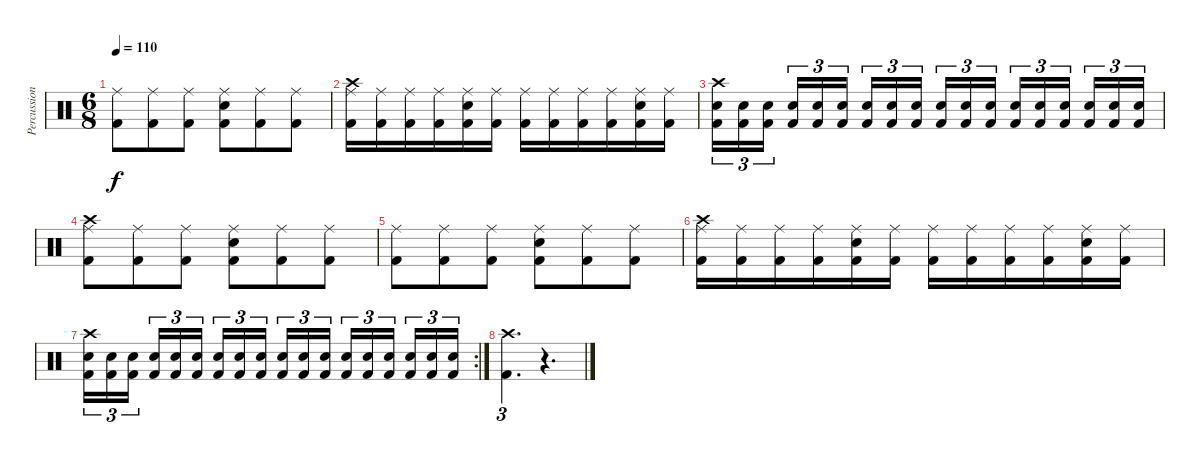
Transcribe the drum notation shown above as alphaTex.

\track ("Percussion" "Percussion") {instrument percussion}
\staff {score}
\articulation defaults
\ts (6 8)
\tempo 110
\clef neutral
\ks c
("Ride (middle)" "Kick (hit) 2").8{dy f} ("Ride (middle)" "Kick (hit) 2").8 ("Ride (middle)" "Kick (hit) 2").8 ("Ride (middle)" "Electric Snare (hit)" "Kick (hit) 2").8 ("Ride (middle)" "Kick (hit) 2").8 ("Ride (middle)" "Kick (hit) 2").8 |
("Crash high (hit)" "Ride (middle)" "Kick (hit) 2").16 ("Ride (middle)" "Kick (hit) 2").16 ("Ride (middle)" "Kick (hit) 2").16 ("Ride (middle)" "Kick (hit) 2").16 ("Ride (middle)" "Electric Snare (hit)" "Kick (hit) 2").16 ("Ride (middle)" "Kick (hit) 2").16 ("Ride (middle)" "Kick (hit) 2").16 ("Ride (middle)" "Kick (hit) 2").16 ("Ride (middle)" "Kick (hit) 2").16 ("Ride (middle)" "Kick (hit) 2").16 ("Ride (middle)" "Electric Snare (hit)" "Kick (hit) 2").16 ("Ride (middle)" "Kick (hit) 2").16 |
("Crash high (hit)" "Electric Snare (hit)" "Kick (hit) 2").16{tu (3 2)} ("Electric Snare (hit)" "Kick (hit) 2").16{tu (3 2)} ("Electric Snare (hit)" "Kick (hit) 2").16{tu (3 2) beam splitsecondary} ("Electric Snare (hit)" "Kick (hit) 2").16{tu (3 2)} ("Electric Snare (hit)" "Kick (hit) 2").16{tu (3 2)} ("Electric Snare (hit)" "Kick (hit) 2").16{tu (3 2) beam splitsecondary} ("Electric Snare (hit)" "Kick (hit) 2").16{tu (3 2)} ("Electric Snare (hit)" "Kick (hit) 2").16{tu (3 2)} ("Electric Snare (hit)" "Kick (hit) 2").16{tu (3 2)} ("Electric Snare (hit)" "Kick (hit) 2").16{tu (3 2)} ("Electric Snare (hit)" "Kick (hit) 2").16{tu (3 2)} ("Electric Snare (hit)" "Kick (hit) 2").16{tu (3 2) beam splitsecondary} ("Electric Snare (hit)" "Kick (hit) 2").16{tu (3 2)} ("Electric Snare (hit)" "Kick (hit) 2").16{tu (3 2)} ("Electric Snare (hit)" "Kick (hit) 2").16{tu (3 2) beam splitsecondary} ("Electric Snare (hit)" "Kick (hit) 2").16{tu (3 2)} ("Electric Snare (hit)" "Kick (hit) 2").16{tu (3 2)} ("Electric Snare (hit)" "Kick (hit) 2").16{tu (3 2)} |
("Crash high (hit)" "Ride (middle)" "Kick (hit) 2").8 ("Ride (middle)" "Kick (hit) 2").8 ("Ride (middle)" "Kick (hit) 2").8 ("Ride (middle)" "Electric Snare (hit)" "Kick (hit) 2").8 ("Ride (middle)" "Kick (hit) 2").8 ("Ride (middle)" "Kick (hit) 2").8 |
("Ride (middle)" "Kick (hit) 2").8 ("Ride (middle)" "Kick (hit) 2").8 ("Ride (middle)" "Kick (hit) 2").8 ("Ride (middle)" "Electric Snare (hit)" "Kick (hit) 2").8 ("Ride (middle)" "Kick (hit) 2").8 ("Ride (middle)" "Kick (hit) 2").8 |
("Crash high (hit)" "Ride (middle)" "Kick (hit) 2").16 ("Ride (middle)" "Kick (hit) 2").16 ("Ride (middle)" "Kick (hit) 2").16 ("Ride (middle)" "Kick (hit) 2").16 ("Ride (middle)" "Electric Snare (hit)" "Kick (hit) 2").16 ("Ride (middle)" "Kick (hit) 2").16 ("Ride (middle)" "Kick (hit) 2").16 ("Ride (middle)" "Kick (hit) 2").16 ("Ride (middle)" "Kick (hit) 2").16 ("Ride (middle)" "Kick (hit) 2").16 ("Ride (middle)" "Electric Snare (hit)" "Kick (hit) 2").16 ("Ride (middle)" "Kick (hit) 2").16 |
\rc 2
("Crash high (hit)" "Electric Snare (hit)" "Kick (hit) 2").16{tu (3 2)} ("Electric Snare (hit)" "Kick (hit) 2").16{tu (3 2)} ("Electric Snare (hit)" "Kick (hit) 2").16{tu (3 2) beam splitsecondary} ("Electric Snare (hit)" "Kick (hit) 2").16{tu (3 2)} ("Electric Snare (hit)" "Kick (hit) 2").16{tu (3 2)} ("Electric Snare (hit)" "Kick (hit) 2").16{tu (3 2) beam splitsecondary} ("Electric Snare (hit)" "Kick (hit) 2").16{tu (3 2)} ("Electric Snare (hit)" "Kick (hit) 2").16{tu (3 2)} ("Electric Snare (hit)" "Kick (hit) 2").16{tu (3 2)} ("Electric Snare (hit)" "Kick (hit) 2").16{tu (3 2)} ("Electric Snare (hit)" "Kick (hit) 2").16{tu (3 2)} ("Electric Snare (hit)" "Kick (hit) 2").16{tu (3 2) beam splitsecondary} ("Electric Snare (hit)" "Kick (hit) 2").16{tu (3 2)} ("Electric Snare (hit)" "Kick (hit) 2").16{tu (3 2)} ("Electric Snare (hit)" "Kick (hit) 2").16{tu (3 2) beam splitsecondary} ("Electric Snare (hit)" "Kick (hit) 2").16{tu (3 2)} ("Electric Snare (hit)" "Kick (hit) 2").16{tu (3 2)} ("Electric Snare (hit)" "Kick (hit) 2").16{tu (3 2)} |
("Crash high (hit)" "Kick (hit) 2").4{d tu (3 2)} r.4{d}
